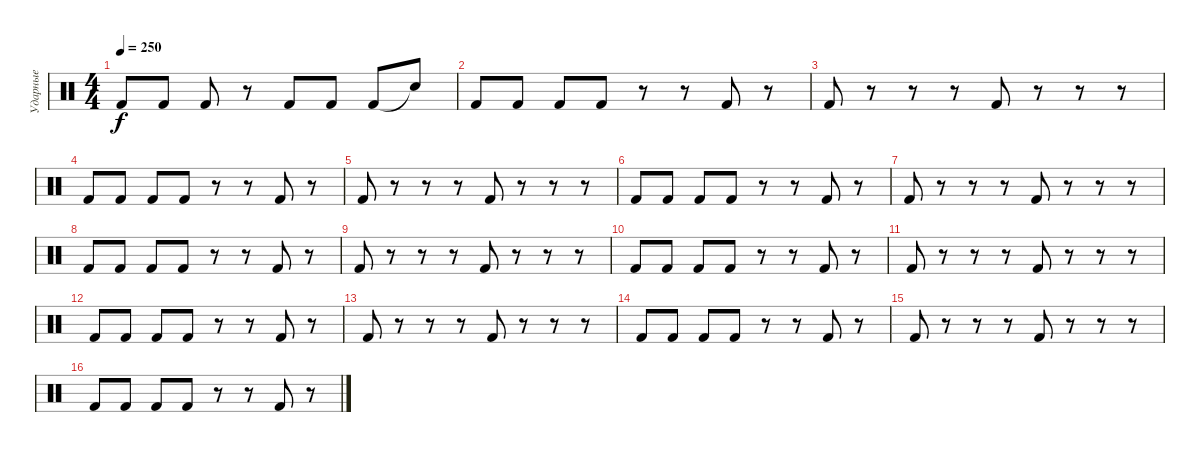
\track ("Ударные" "Ударные") {instrument percussion}
\staff {score}
\articulation defaults
\ts (4 4)
\tempo 250
\clef neutral
\ks c "Kick (hit) 2".8{dy f} "Kick (hit) 2".8 "Kick (hit) 2".8
r.8 "Kick (hit) 2".8 "Kick (hit) 2".8 "Kick (hit) 2".8 "Snare (hit)"{t}.8 |
"Kick (hit) 2".8 "Kick (hit) 2".8 "Kick (hit) 2".8 "Kick (hit) 2".8 r.8 r.8 "Kick (hit) 2".8 r.8 |
"Kick (hit) 2".8 r.8 r.8 r.8 "Kick (hit) 2".8 r.8 r.8 r.8 |
"Kick (hit) 2".8 "Kick (hit) 2".8 "Kick (hit) 2".8 "Kick (hit) 2".8 r.8 r.8 "Kick (hit) 2".8 r.8 |
"Kick (hit) 2".8 r.8 r.8 r.8 "Kick (hit) 2".8 r.8 r.8 r.8 |
"Kick (hit) 2".8 "Kick (hit) 2".8 "Kick (hit) 2".8 "Kick (hit) 2".8 r.8 r.8 "Kick (hit) 2".8 r.8 |
"Kick (hit) 2".8 r.8 r.8 r.8 "Kick (hit) 2".8 r.8 r.8 r.8 |
"Kick (hit) 2".8 "Kick (hit) 2".8 "Kick (hit) 2".8 "Kick (hit) 2".8 r.8 r.8 "Kick (hit) 2".8 r.8 |
"Kick (hit) 2".8 r.8 r.8 r.8 "Kick (hit) 2".8 r.8 r.8 r.8 |
"Kick (hit) 2".8 "Kick (hit) 2".8 "Kick (hit) 2".8 "Kick (hit) 2".8 r.8 r.8 "Kick (hit) 2".8 r.8 |
"Kick (hit) 2".8 r.8 r.8 r.8 "Kick (hit) 2".8 r.8 r.8 r.8 |
"Kick (hit) 2".8 "Kick (hit) 2".8 "Kick (hit) 2".8 "Kick (hit) 2".8 r.8 r.8 "Kick (hit) 2".8 r.8 |
"Kick (hit) 2".8 r.8 r.8 r.8 "Kick (hit) 2".8 r.8 r.8 r.8 |
"Kick (hit) 2".8 "Kick (hit) 2".8 "Kick (hit) 2".8 "Kick (hit) 2".8 r.8 r.8 "Kick (hit) 2".8 r.8 |
"Kick (hit) 2".8 r.8 r.8 r.8 "Kick (hit) 2".8 r.8 r.8 r.8 |
"Kick (hit) 2".8 "Kick (hit) 2".8 "Kick (hit) 2".8 "Kick (hit) 2".8 r.8 r.8 "Kick (hit) 2".8 r.8
